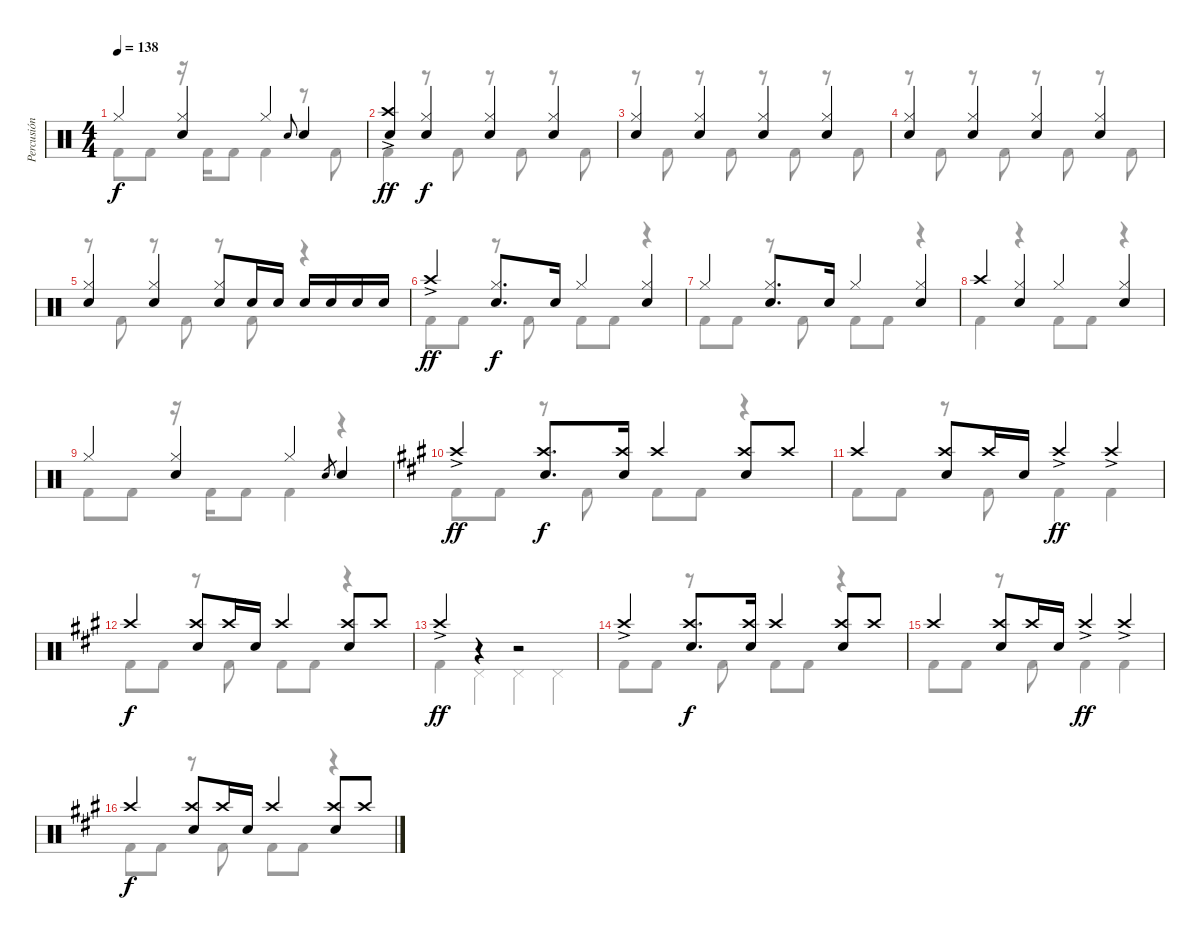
\track ("Percusión" "Percusión") {instrument percussion}
\staff {score}
\articulation defaults
\voice
\ts (4 4)
\tempo 138
\clef neutral
\ks c "Hi-Hat (closed)".4{dy f}
("Electric Snare (hit)" "Hi-Hat (closed)").4 "Hi-Hat (closed)".4 "Electric Snare (hit)".8{gr onbeat} "Electric Snare (hit)".4 |
("Electric Snare (hit)" "Crash high (hit)"{ac}).4{dy ff} ("Electric Snare (hit)" "Hi-Hat (closed)").4{dy f} ("Electric Snare (hit)" "Hi-Hat (closed)").4 ("Electric Snare (hit)" "Hi-Hat (closed)").4 |
("Electric Snare (hit)" "Hi-Hat (closed)").4 ("Electric Snare (hit)" "Hi-Hat (closed)").4 ("Electric Snare (hit)" "Hi-Hat (closed)").4 ("Electric Snare (hit)" "Hi-Hat (closed)").4 |
("Electric Snare (hit)" "Hi-Hat (closed)").4 ("Electric Snare (hit)" "Hi-Hat (closed)").4 ("Electric Snare (hit)" "Hi-Hat (closed)").4 ("Electric Snare (hit)" "Hi-Hat (closed)").4 |
("Electric Snare (hit)" "Hi-Hat (closed)").4 ("Electric Snare (hit)" "Hi-Hat (closed)").4 ("Electric Snare (hit)" "Hi-Hat (closed)").8 "Electric Snare (hit)".16 "Electric Snare (hit)".16 "Electric Snare (hit)".16 "Electric Snare (hit)".16 "Electric Snare (hit)".16 "Electric Snare (hit)".16 |
"Crash high (hit)"{ac}.4{dy ff} ("Electric Snare (hit)" "Hi-Hat (closed)").8{d dy f} "Electric Snare (hit)".16 "Hi-Hat (closed)".4 ("Electric Snare (hit)" "Hi-Hat (closed)").4 |
"Hi-Hat (closed)".4 ("Electric Snare (hit)" "Hi-Hat (closed)").8{d} "Electric Snare (hit)".16 "Hi-Hat (closed)".4 ("Electric Snare (hit)" "Hi-Hat (closed)").4 |
"Crash high (hit)".4 ("Electric Snare (hit)" "Hi-Hat (closed)").4 "Hi-Hat (closed)".4 ("Electric Snare (hit)" "Hi-Hat (closed)").4 |
"Hi-Hat (closed)".4 ("Electric Snare (hit)" "Hi-Hat (closed)").4 "Hi-Hat (closed)".4 "Electric Snare (hit)".8{gr} "Electric Snare (hit)".4 |
\ks a "Crash high (hit)"{ac}.4{dy ff}
("Electric Snare (hit)" "Crash high (hit)").8{d dy f} ("Electric Snare (hit)" "Crash high (hit)").16 "Crash high (hit)".4 ("Electric Snare (hit)" "Crash high (hit)").8 "Crash high (hit)".8 |
"Crash high (hit)".4 ("Electric Snare (hit)" "Crash high (hit)").8 "Crash high (hit)".16 "Electric Snare (hit)".16 "Crash high (hit)"{ac}.4{dy ff} "Crash high (hit)"{ac}.4 |
"Crash high (hit)".4{dy f} ("Electric Snare (hit)" "Crash high (hit)").8 "Crash high (hit)".16 "Electric Snare (hit)".16 "Crash high (hit)".4 ("Electric Snare (hit)" "Crash high (hit)").8 "Crash high (hit)".8 |
"Crash high (hit)"{ac}.4{dy ff} r.4 r.2 |
"Crash high (hit)"{ac}.4 ("Electric Snare (hit)" "Crash high (hit)").8{d dy f} ("Electric Snare (hit)" "Crash high (hit)").16 "Crash high (hit)".4 ("Electric Snare (hit)" "Crash high (hit)").8 "Crash high (hit)".8 |
"Crash high (hit)".4 ("Electric Snare (hit)" "Crash high (hit)").8 "Crash high (hit)".16 "Electric Snare (hit)".16 "Crash high (hit)"{ac}.4{dy ff} "Crash high (hit)"{ac}.4 |
"Crash high (hit)".4{dy f} ("Electric Snare (hit)" "Crash high (hit)").8 "Crash high (hit)".16 "Electric Snare (hit)".16 "Crash high (hit)".4 ("Electric Snare (hit)" "Crash high (hit)").8 "Crash high (hit)".8
\voice
\clef neutral
\ottava regular
\simile none
\ks c "Kick (hit) 2".8{dy f} "Kick (hit) 2".8
r.16 "Kick (hit) 2".16 "Kick (hit) 2".8 "Kick (hit) 2".4 r.8 "Kick (hit) 2".8 |
"Kick (hit) 2".4 r.8 "Kick (hit) 2".8 r.8 "Kick (hit) 2".8 r.8 "Kick (hit) 2".8 |
r.8 "Kick (hit) 2".8 r.8 "Kick (hit) 2".8 r.8 "Kick (hit) 2".8 r.8 "Kick (hit) 2".8 |
r.8 "Kick (hit) 2".8 r.8 "Kick (hit) 2".8 r.8 "Kick (hit) 2".8 r.8 "Kick (hit) 2".8 |
r.8 "Kick (hit) 2".8 r.8 "Kick (hit) 2".8 r.8 "Kick (hit) 2".8 r.4 |
"Kick (hit) 2".8 "Kick (hit) 2".8 r.8 "Kick (hit) 2".8 "Kick (hit) 2".8 "Kick (hit) 2".8 r.4 |
"Kick (hit) 2".8 "Kick (hit) 2".8 r.8 "Kick (hit) 2".8 "Kick (hit) 2".8 "Kick (hit) 2".8 r.4 |
"Kick (hit) 2".4 r.4 "Kick (hit) 2".8 "Kick (hit) 2".8 r.4 |
"Kick (hit) 2".8 "Kick (hit) 2".8 r.16 "Kick (hit) 2".16 "Kick (hit) 2".8 "Kick (hit) 2".4 r.4 |
\ks a "Kick (hit) 2".8 "Kick (hit) 2".8
r.8 "Kick (hit) 2".8 "Kick (hit) 2".8 "Kick (hit) 2".8 r.4 |
"Kick (hit) 2".8 "Kick (hit) 2".8 r.8 "Kick (hit) 2".8 "Kick (hit) 2".4 "Kick (hit) 2".4 |
"Kick (hit) 2".8 "Kick (hit) 2".8 r.8 "Kick (hit) 2".8 "Kick (hit) 2".8 "Kick (hit) 2".8 r.4 |
"Kick (hit) 2".4 "Pedal Hi-Hat (hit)".4 "Pedal Hi-Hat (hit)".4 "Pedal Hi-Hat (hit)".4 |
"Kick (hit) 2".8 "Kick (hit) 2".8 r.8 "Kick (hit) 2".8 "Kick (hit) 2".8 "Kick (hit) 2".8 r.4 |
"Kick (hit) 2".8 "Kick (hit) 2".8 r.8 "Kick (hit) 2".8 "Kick (hit) 2".4 "Kick (hit) 2".4 |
"Kick (hit) 2".8 "Kick (hit) 2".8 r.8 "Kick (hit) 2".8 "Kick (hit) 2".8 "Kick (hit) 2".8 r.4
